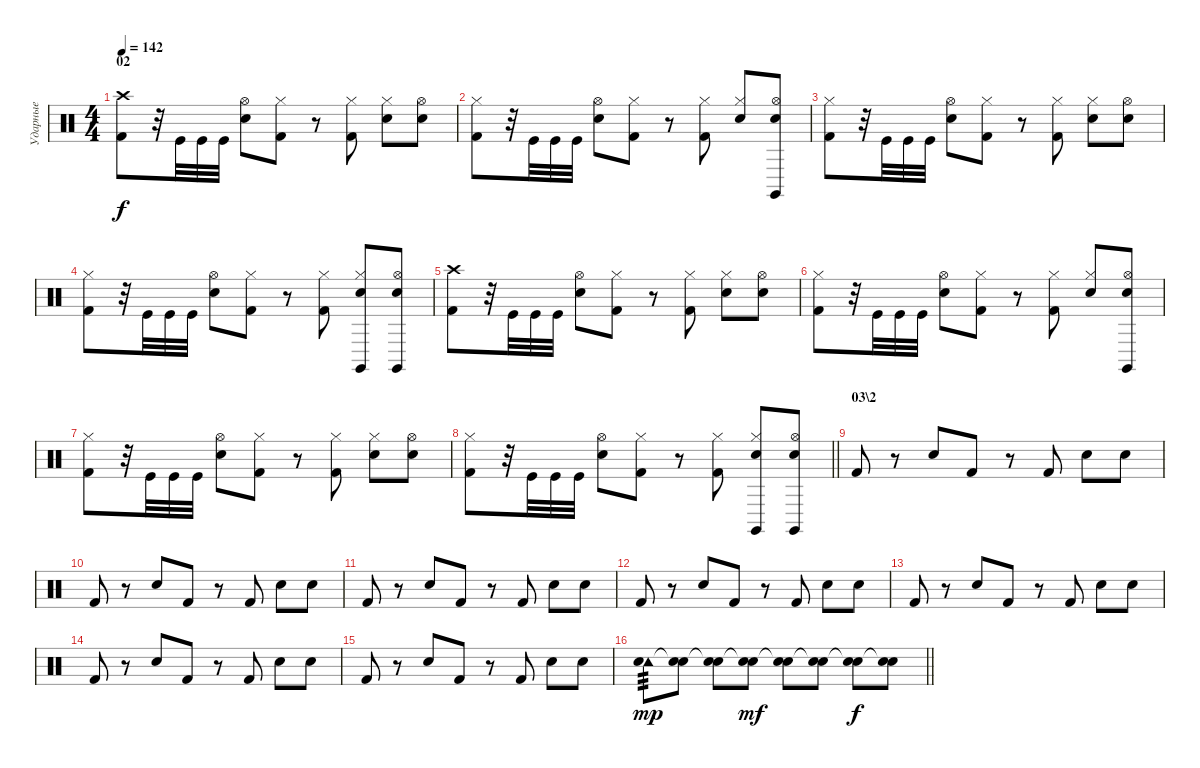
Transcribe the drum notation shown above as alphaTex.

\track ("Ударные" "Ударные") {instrument percussion}
\staff {score}
\articulation defaults
\ts (4 4)
\section ("" "02")
\tempo 142
\clef neutral
\ks c
("Crash high (hit)" "Kick (hit) 2").8{dy f} r.32 "Kick (hit)".32 "Kick (hit)".32 "Kick (hit)".32 ("Hi-Hat (open)" "Electric Snare (hit)").8 ("Hi-Hat (closed)" "Kick (hit) 2").8 r.8 ("Hi-Hat (closed)" "Kick (hit) 2").8 ("Hi-Hat (closed)" "Electric Snare (hit)").8 ("Hi-Hat (open)" "Electric Snare (hit)").8 |
("Hi-Hat (closed)" "Kick (hit) 2").8 r.32 "Kick (hit)".32 "Kick (hit)".32 "Kick (hit)".32 ("Hi-Hat (open)" "Electric Snare (hit)").8 ("Hi-Hat (closed)" "Kick (hit) 2").8 r.8 ("Hi-Hat (closed)" "Kick (hit) 2").8 ("Hi-Hat (closed)" "Electric Snare (hit)").8 ("Claves (hit)" "Hi-Hat (open)" "Electric Snare (hit)").8 |
("Hi-Hat (closed)" "Kick (hit) 2").8 r.32 "Kick (hit)".32 "Kick (hit)".32 "Kick (hit)".32 ("Hi-Hat (open)" "Electric Snare (hit)").8 ("Hi-Hat (closed)" "Kick (hit) 2").8 r.8 ("Hi-Hat (closed)" "Kick (hit) 2").8 ("Hi-Hat (closed)" "Electric Snare (hit)").8 ("Hi-Hat (open)" "Electric Snare (hit)").8 |
("Hi-Hat (closed)" "Kick (hit) 2").8 r.32 "Kick (hit)".32 "Kick (hit)".32 "Kick (hit)".32 ("Hi-Hat (open)" "Electric Snare (hit)").8 ("Hi-Hat (closed)" "Kick (hit) 2").8 r.8 ("Hi-Hat (closed)" "Kick (hit) 2").8 ("Claves (hit)" "Hi-Hat (closed)" "Electric Snare (hit)").8 ("Claves (hit)" "Hi-Hat (open)" "Electric Snare (hit)").8 |
("Crash high (hit)" "Kick (hit) 2").8 r.32 "Kick (hit)".32 "Kick (hit)".32 "Kick (hit)".32 ("Hi-Hat (open)" "Electric Snare (hit)").8 ("Hi-Hat (closed)" "Kick (hit) 2").8 r.8 ("Hi-Hat (closed)" "Kick (hit) 2").8 ("Hi-Hat (closed)" "Electric Snare (hit)").8 ("Hi-Hat (open)" "Electric Snare (hit)").8 |
("Hi-Hat (closed)" "Kick (hit) 2").8 r.32 "Kick (hit)".32 "Kick (hit)".32 "Kick (hit)".32 ("Hi-Hat (open)" "Electric Snare (hit)").8 ("Hi-Hat (closed)" "Kick (hit) 2").8 r.8 ("Hi-Hat (closed)" "Kick (hit) 2").8 ("Hi-Hat (closed)" "Electric Snare (hit)").8 ("Claves (hit)" "Hi-Hat (open)" "Electric Snare (hit)").8 |
("Hi-Hat (closed)" "Kick (hit) 2").8 r.32 "Kick (hit)".32 "Kick (hit)".32 "Kick (hit)".32 ("Hi-Hat (open)" "Electric Snare (hit)").8 ("Hi-Hat (closed)" "Kick (hit) 2").8 r.8 ("Hi-Hat (closed)" "Kick (hit) 2").8 ("Hi-Hat (closed)" "Electric Snare (hit)").8 ("Hi-Hat (open)" "Electric Snare (hit)").8 |
\barLineRight lightlight
("Hi-Hat (closed)" "Kick (hit) 2").8 r.32 "Kick (hit)".32 "Kick (hit)".32 "Kick (hit)".32 ("Hi-Hat (open)" "Electric Snare (hit)").8 ("Hi-Hat (closed)" "Kick (hit) 2").8 r.8 ("Hi-Hat (closed)" "Kick (hit) 2").8 ("Claves (hit)" "Hi-Hat (closed)" "Electric Snare (hit)").8 ("Claves (hit)" "Hi-Hat (open)" "Electric Snare (hit)").8 |
\section ("" "03\\2")
"Kick (hit) 2".8 r.8 "Electric Snare (hit)".8 "Kick (hit) 2".8 r.8 "Kick (hit) 2".8 "Electric Snare (hit)".8 "Electric Snare (hit)".8 |
"Kick (hit) 2".8 r.8 "Electric Snare (hit)".8 "Kick (hit) 2".8 r.8 "Kick (hit) 2".8 "Electric Snare (hit)".8 "Electric Snare (hit)".8 |
"Kick (hit) 2".8 r.8 "Electric Snare (hit)".8 "Kick (hit) 2".8 r.8 "Kick (hit) 2".8 "Electric Snare (hit)".8 "Electric Snare (hit)".8 |
"Kick (hit) 2".8 r.8 "Electric Snare (hit)".8 "Kick (hit) 2".8 r.8 "Kick (hit) 2".8 "Electric Snare (hit)".8 "Electric Snare (hit)".8 |
"Kick (hit) 2".8 r.8 "Electric Snare (hit)".8 "Kick (hit) 2".8 r.8 "Kick (hit) 2".8 "Electric Snare (hit)".8 "Electric Snare (hit)".8 |
"Kick (hit) 2".8 r.8 "Electric Snare (hit)".8 "Kick (hit) 2".8 r.8 "Kick (hit) 2".8 "Electric Snare (hit)".8 "Electric Snare (hit)".8 |
"Kick (hit) 2".8 r.8 "Electric Snare (hit)".8 "Kick (hit) 2".8 r.8 "Kick (hit) 2".8 "Electric Snare (hit)".8 "Electric Snare (hit)".8 |
\barLineRight lightlight
("Tambourine (hit)" "Electric Snare (hit)").8{tp 3 dy mp} ("Snare (hit)"{t} "Electric Snare (hit)").8 ("Snare (hit)"{t} "Electric Snare (hit)").8 ("Snare (hit)"{t} "Electric Snare (hit)").8{dy mf} ("Snare (hit)"{t} "Electric Snare (hit)").8 ("Snare (hit)"{t} "Electric Snare (hit)").8 ("Snare (hit)"{t} "Electric Snare (hit)").8{dy f} ("Snare (hit)"{t} "Electric Snare (hit)").8
